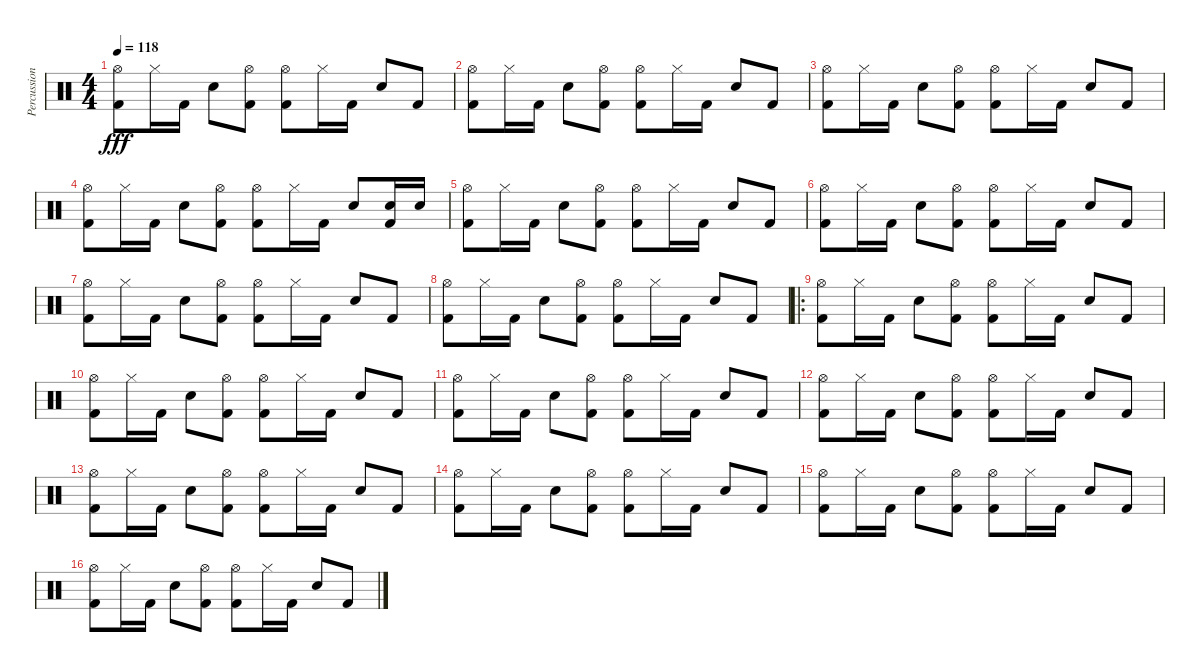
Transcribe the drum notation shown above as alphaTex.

\track ("Percussion" "Percussion") {instrument percussion}
\staff {score}
\articulation defaults
\ts (4 4)
\tempo 118
\clef neutral
\ks c
("Hi-Hat (open)" "Kick (hit) 2").8{dy fff} "Hi-Hat (closed)".16 "Kick (hit) 2".16 "Electric Snare (hit)".8 ("Hi-Hat (open)" "Kick (hit) 2").8 ("Hi-Hat (open)" "Kick (hit) 2").8 "Hi-Hat (closed)".16 "Kick (hit) 2".16 "Electric Snare (hit)".8 "Kick (hit) 2".8 |
("Hi-Hat (open)" "Kick (hit) 2").8 "Hi-Hat (closed)".16 "Kick (hit) 2".16 "Electric Snare (hit)".8 ("Hi-Hat (open)" "Kick (hit) 2").8 ("Hi-Hat (open)" "Kick (hit) 2").8 "Hi-Hat (closed)".16 "Kick (hit) 2".16 "Electric Snare (hit)".8 "Kick (hit) 2".8 |
("Hi-Hat (open)" "Kick (hit) 2").8 "Hi-Hat (closed)".16 "Kick (hit) 2".16 "Electric Snare (hit)".8 ("Hi-Hat (open)" "Kick (hit) 2").8 ("Hi-Hat (open)" "Kick (hit) 2").8 "Hi-Hat (closed)".16 "Kick (hit) 2".16 "Electric Snare (hit)".8 "Kick (hit) 2".8 |
("Hi-Hat (open)" "Kick (hit) 2").8 "Hi-Hat (closed)".16 "Kick (hit) 2".16 "Electric Snare (hit)".8 ("Hi-Hat (open)" "Kick (hit) 2").8 ("Hi-Hat (open)" "Kick (hit) 2").8 "Hi-Hat (closed)".16 "Kick (hit) 2".16 "Electric Snare (hit)".8 ("Kick (hit) 2" "Electric Snare (hit)").16 "Electric Snare (hit)".16 |
("Hi-Hat (open)" "Kick (hit) 2").8 "Hi-Hat (closed)".16 "Kick (hit) 2".16 "Electric Snare (hit)".8 ("Hi-Hat (open)" "Kick (hit) 2").8 ("Hi-Hat (open)" "Kick (hit) 2").8 "Hi-Hat (closed)".16 "Kick (hit) 2".16 "Electric Snare (hit)".8 "Kick (hit) 2".8 |
("Hi-Hat (open)" "Kick (hit) 2").8 "Hi-Hat (closed)".16 "Kick (hit) 2".16 "Electric Snare (hit)".8 ("Hi-Hat (open)" "Kick (hit) 2").8 ("Hi-Hat (open)" "Kick (hit) 2").8 "Hi-Hat (closed)".16 "Kick (hit) 2".16 "Electric Snare (hit)".8 "Kick (hit) 2".8 |
("Hi-Hat (open)" "Kick (hit) 2").8 "Hi-Hat (closed)".16 "Kick (hit) 2".16 "Electric Snare (hit)".8 ("Hi-Hat (open)" "Kick (hit) 2").8 ("Hi-Hat (open)" "Kick (hit) 2").8 "Hi-Hat (closed)".16 "Kick (hit) 2".16 "Electric Snare (hit)".8 "Kick (hit) 2".8 |
("Hi-Hat (open)" "Kick (hit) 2").8 "Hi-Hat (closed)".16 "Kick (hit) 2".16 "Electric Snare (hit)".8 ("Hi-Hat (open)" "Kick (hit) 2").8 ("Hi-Hat (open)" "Kick (hit) 2").8 "Hi-Hat (closed)".16 "Kick (hit) 2".16 "Electric Snare (hit)".8 "Kick (hit) 2".8 |
\ro
("Hi-Hat (open)" "Kick (hit) 2").8 "Hi-Hat (closed)".16 "Kick (hit) 2".16 "Electric Snare (hit)".8 ("Hi-Hat (open)" "Kick (hit) 2").8 ("Hi-Hat (open)" "Kick (hit) 2").8 "Hi-Hat (closed)".16 "Kick (hit) 2".16 "Electric Snare (hit)".8 "Kick (hit) 2".8 |
("Hi-Hat (open)" "Kick (hit) 2").8 "Hi-Hat (closed)".16 "Kick (hit) 2".16 "Electric Snare (hit)".8 ("Hi-Hat (open)" "Kick (hit) 2").8 ("Hi-Hat (open)" "Kick (hit) 2").8 "Hi-Hat (closed)".16 "Kick (hit) 2".16 "Electric Snare (hit)".8 "Kick (hit) 2".8 |
("Hi-Hat (open)" "Kick (hit) 2").8 "Hi-Hat (closed)".16 "Kick (hit) 2".16 "Electric Snare (hit)".8 ("Hi-Hat (open)" "Kick (hit) 2").8 ("Hi-Hat (open)" "Kick (hit) 2").8 "Hi-Hat (closed)".16 "Kick (hit) 2".16 "Electric Snare (hit)".8 "Kick (hit) 2".8 |
("Hi-Hat (open)" "Kick (hit) 2").8 "Hi-Hat (closed)".16 "Kick (hit) 2".16 "Electric Snare (hit)".8 ("Hi-Hat (open)" "Kick (hit) 2").8 ("Hi-Hat (open)" "Kick (hit) 2").8 "Hi-Hat (closed)".16 "Kick (hit) 2".16 "Electric Snare (hit)".8 "Kick (hit) 2".8 |
("Hi-Hat (open)" "Kick (hit) 2").8 "Hi-Hat (closed)".16 "Kick (hit) 2".16 "Electric Snare (hit)".8 ("Hi-Hat (open)" "Kick (hit) 2").8 ("Hi-Hat (open)" "Kick (hit) 2").8 "Hi-Hat (closed)".16 "Kick (hit) 2".16 "Electric Snare (hit)".8 "Kick (hit) 2".8 |
("Hi-Hat (open)" "Kick (hit) 2").8 "Hi-Hat (closed)".16 "Kick (hit) 2".16 "Electric Snare (hit)".8 ("Hi-Hat (open)" "Kick (hit) 2").8 ("Hi-Hat (open)" "Kick (hit) 2").8 "Hi-Hat (closed)".16 "Kick (hit) 2".16 "Electric Snare (hit)".8 "Kick (hit) 2".8 |
("Hi-Hat (open)" "Kick (hit) 2").8 "Hi-Hat (closed)".16 "Kick (hit) 2".16 "Electric Snare (hit)".8 ("Hi-Hat (open)" "Kick (hit) 2").8 ("Hi-Hat (open)" "Kick (hit) 2").8 "Hi-Hat (closed)".16 "Kick (hit) 2".16 "Electric Snare (hit)".8 "Kick (hit) 2".8 |
("Hi-Hat (open)" "Kick (hit) 2").8 "Hi-Hat (closed)".16 "Kick (hit) 2".16 "Electric Snare (hit)".8 ("Hi-Hat (open)" "Kick (hit) 2").8 ("Hi-Hat (open)" "Kick (hit) 2").8 "Hi-Hat (closed)".16 "Kick (hit) 2".16 "Electric Snare (hit)".8 "Kick (hit) 2".8
